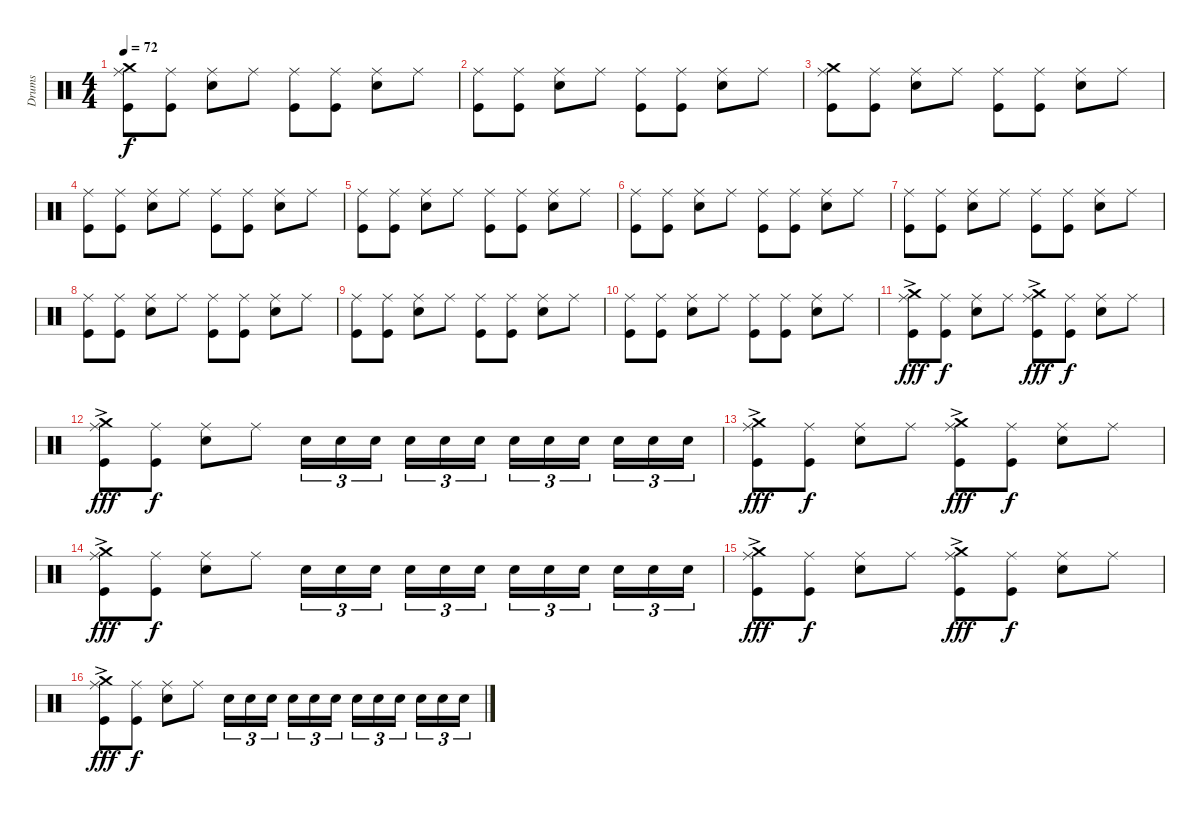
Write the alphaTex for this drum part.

\track ("Drums" "Drums") {instrument percussion}
\staff {score}
\articulation defaults
\ts (4 4)
\tempo 72
\clef neutral
\ks c
("Ride (middle)" "Crash medium (hit)" "Kick (hit)").8{dy f} ("Ride (middle)" "Kick (hit)").8 ("Ride (middle)" "Snare (hit) 2").8 "Ride (middle)".8 ("Ride (middle)" "Kick (hit)").8 ("Ride (middle)" "Kick (hit)").8 ("Ride (middle)" "Snare (hit) 2").8 "Ride (middle)".8 |
("Ride (middle)" "Kick (hit)").8 ("Ride (middle)" "Kick (hit)").8 ("Ride (middle)" "Snare (hit) 2").8 "Ride (middle)".8 ("Ride (middle)" "Kick (hit)").8 ("Ride (middle)" "Kick (hit)").8 ("Ride (middle)" "Snare (hit) 2").8 "Ride (middle)".8 |
\section ("" "")
("Ride (middle)" "Crash medium (hit)" "Kick (hit)").8 ("Ride (middle)" "Kick (hit)").8 ("Ride (middle)" "Snare (hit) 2").8 "Ride (middle)".8 ("Ride (middle)" "Kick (hit)").8 ("Ride (middle)" "Kick (hit)").8 ("Ride (middle)" "Snare (hit) 2").8 "Ride (middle)".8 |
("Ride (middle)" "Kick (hit)").8 ("Ride (middle)" "Kick (hit)").8 ("Ride (middle)" "Snare (hit) 2").8 "Ride (middle)".8 ("Ride (middle)" "Kick (hit)").8 ("Ride (middle)" "Kick (hit)").8 ("Ride (middle)" "Snare (hit) 2").8 "Ride (middle)".8 |
("Ride (middle)" "Kick (hit)").8 ("Ride (middle)" "Kick (hit)").8 ("Ride (middle)" "Snare (hit) 2").8 "Ride (middle)".8 ("Ride (middle)" "Kick (hit)").8 ("Ride (middle)" "Kick (hit)").8 ("Ride (middle)" "Snare (hit) 2").8 "Ride (middle)".8 |
("Ride (middle)" "Kick (hit)").8 ("Ride (middle)" "Kick (hit)").8 ("Ride (middle)" "Snare (hit) 2").8 "Ride (middle)".8 ("Ride (middle)" "Kick (hit)").8 ("Ride (middle)" "Kick (hit)").8 ("Ride (middle)" "Snare (hit) 2").8 "Ride (middle)".8 |
("Ride (middle)" "Kick (hit)").8 ("Ride (middle)" "Kick (hit)").8 ("Ride (middle)" "Snare (hit) 2").8 "Ride (middle)".8 ("Ride (middle)" "Kick (hit)").8 ("Ride (middle)" "Kick (hit)").8 ("Ride (middle)" "Snare (hit) 2").8 "Ride (middle)".8 |
("Ride (middle)" "Kick (hit)").8 ("Ride (middle)" "Kick (hit)").8 ("Ride (middle)" "Snare (hit) 2").8 "Ride (middle)".8 ("Ride (middle)" "Kick (hit)").8 ("Ride (middle)" "Kick (hit)").8 ("Ride (middle)" "Snare (hit) 2").8 "Ride (middle)".8 |
("Ride (middle)" "Kick (hit)").8 ("Ride (middle)" "Kick (hit)").8 ("Ride (middle)" "Snare (hit) 2").8 "Ride (middle)".8 ("Ride (middle)" "Kick (hit)").8 ("Ride (middle)" "Kick (hit)").8 ("Ride (middle)" "Snare (hit) 2").8 "Ride (middle)".8 |
("Ride (middle)" "Kick (hit)").8 ("Ride (middle)" "Kick (hit)").8 ("Ride (middle)" "Snare (hit) 2").8 "Ride (middle)".8 ("Ride (middle)" "Kick (hit)").8 ("Ride (middle)" "Kick (hit)").8 ("Ride (middle)" "Snare (hit) 2").8 "Ride (middle)".8 |
("Ride (middle)" "Crash medium (hit)"{ac} "Kick (hit)").8{dy fff} ("Ride (middle)" "Kick (hit)").8{dy f} ("Ride (middle)" "Snare (hit) 2").8 "Ride (middle)".8 ("Ride (middle)" "Crash medium (hit)"{ac} "Kick (hit)").8{dy fff} ("Ride (middle)" "Kick (hit)").8{dy f} ("Ride (middle)" "Snare (hit) 2").8 "Ride (middle)".8 |
("Ride (middle)" "Crash medium (hit)"{ac} "Kick (hit)").8{dy fff} ("Ride (middle)" "Kick (hit)").8{dy f} ("Ride (middle)" "Snare (hit) 2").8 "Ride (middle)".8 "Snare (hit) 2".16{tu (3 2)} "Snare (hit) 2".16{tu (3 2)} "Snare (hit) 2".16{tu (3 2)} "Snare (hit) 2".16{tu (3 2)} "Snare (hit) 2".16{tu (3 2)} "Snare (hit) 2".16{tu (3 2)} "Snare (hit) 2".16{tu (3 2)} "Snare (hit) 2".16{tu (3 2)} "Snare (hit) 2".16{tu (3 2)} "Snare (hit) 2".16{tu (3 2)} "Snare (hit) 2".16{tu (3 2)} "Snare (hit) 2".16{tu (3 2)} |
("Ride (middle)" "Crash medium (hit)"{ac} "Kick (hit)").8{dy fff} ("Ride (middle)" "Kick (hit)").8{dy f} ("Ride (middle)" "Snare (hit) 2").8 "Ride (middle)".8 ("Ride (middle)" "Crash medium (hit)"{ac} "Kick (hit)").8{dy fff} ("Ride (middle)" "Kick (hit)").8{dy f} ("Ride (middle)" "Snare (hit) 2").8 "Ride (middle)".8 |
("Ride (middle)" "Crash medium (hit)"{ac} "Kick (hit)").8{dy fff} ("Ride (middle)" "Kick (hit)").8{dy f} ("Ride (middle)" "Snare (hit) 2").8 "Ride (middle)".8 "Snare (hit) 2".16{tu (3 2)} "Snare (hit) 2".16{tu (3 2)} "Snare (hit) 2".16{tu (3 2)} "Snare (hit) 2".16{tu (3 2)} "Snare (hit) 2".16{tu (3 2)} "Snare (hit) 2".16{tu (3 2)} "Snare (hit) 2".16{tu (3 2)} "Snare (hit) 2".16{tu (3 2)} "Snare (hit) 2".16{tu (3 2)} "Snare (hit) 2".16{tu (3 2)} "Snare (hit) 2".16{tu (3 2)} "Snare (hit) 2".16{tu (3 2)} |
("Ride (middle)" "Crash medium (hit)"{ac} "Kick (hit)").8{dy fff} ("Ride (middle)" "Kick (hit)").8{dy f} ("Ride (middle)" "Snare (hit) 2").8 "Ride (middle)".8 ("Ride (middle)" "Crash medium (hit)"{ac} "Kick (hit)").8{dy fff} ("Ride (middle)" "Kick (hit)").8{dy f} ("Ride (middle)" "Snare (hit) 2").8 "Ride (middle)".8 |
("Ride (middle)" "Crash medium (hit)"{ac} "Kick (hit)").8{dy fff} ("Ride (middle)" "Kick (hit)").8{dy f} ("Ride (middle)" "Snare (hit) 2").8 "Ride (middle)".8 "Snare (hit) 2".16{tu (3 2)} "Snare (hit) 2".16{tu (3 2)} "Snare (hit) 2".16{tu (3 2)} "Snare (hit) 2".16{tu (3 2)} "Snare (hit) 2".16{tu (3 2)} "Snare (hit) 2".16{tu (3 2)} "Snare (hit) 2".16{tu (3 2)} "Snare (hit) 2".16{tu (3 2)} "Snare (hit) 2".16{tu (3 2)} "Snare (hit) 2".16{tu (3 2)} "Snare (hit) 2".16{tu (3 2)} "Snare (hit) 2".16{tu (3 2)}
